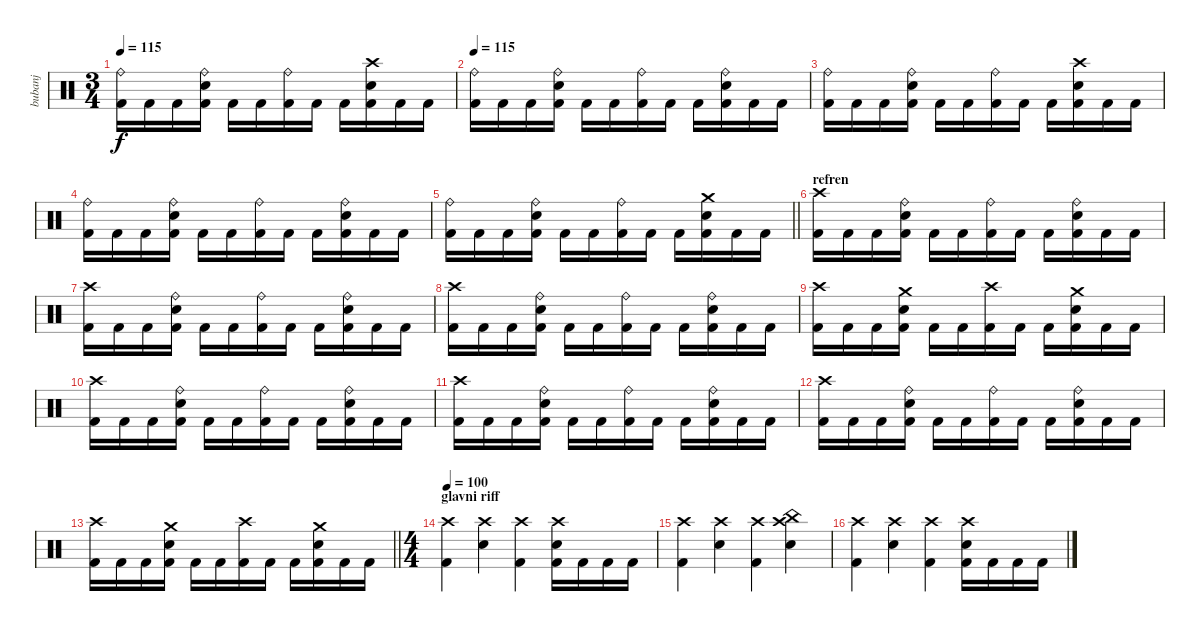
\track ("bubanj" "bubanj") {instrument percussion}
\staff {score}
\articulation defaults
\ts (3 4)
\tempo 115
\clef neutral
\ks c
("Ride (bell)" "Kick (hit) 2").16{dy f} "Kick (hit) 2".16 "Kick (hit) 2".16 ("Ride (bell)" "Electric Snare (hit)" "Kick (hit) 2").16 "Kick (hit) 2".16 "Kick (hit) 2".16 ("Ride (bell)" "Kick (hit) 2").16 "Kick (hit) 2".16 "Kick (hit) 2".16 ("Crash high (hit)" "Electric Snare (hit)" "Kick (hit) 2").16 "Kick (hit) 2".16 "Kick (hit) 2".16 |
\tempo 115
("Ride (bell)" "Kick (hit) 2").16 "Kick (hit) 2".16 "Kick (hit) 2".16 ("Ride (bell)" "Electric Snare (hit)" "Kick (hit) 2").16 "Kick (hit) 2".16 "Kick (hit) 2".16 ("Ride (bell)" "Kick (hit) 2").16 "Kick (hit) 2".16 "Kick (hit) 2".16 ("Ride (bell)" "Electric Snare (hit)" "Kick (hit) 2").16 "Kick (hit) 2".16 "Kick (hit) 2".16 |
("Ride (bell)" "Kick (hit) 2").16 "Kick (hit) 2".16 "Kick (hit) 2".16 ("Ride (bell)" "Electric Snare (hit)" "Kick (hit) 2").16 "Kick (hit) 2".16 "Kick (hit) 2".16 ("Ride (bell)" "Kick (hit) 2").16 "Kick (hit) 2".16 "Kick (hit) 2".16 ("Crash high (hit)" "Electric Snare (hit)" "Kick (hit) 2").16 "Kick (hit) 2".16 "Kick (hit) 2".16 |
("Ride (bell)" "Kick (hit) 2").16 "Kick (hit) 2".16 "Kick (hit) 2".16 ("Ride (bell)" "Electric Snare (hit)" "Kick (hit) 2").16 "Kick (hit) 2".16 "Kick (hit) 2".16 ("Ride (bell)" "Kick (hit) 2").16 "Kick (hit) 2".16 "Kick (hit) 2".16 ("Ride (bell)" "Electric Snare (hit)" "Kick (hit) 2").16 "Kick (hit) 2".16 "Kick (hit) 2".16 |
\barLineRight lightlight
("Ride (bell)" "Kick (hit) 2").16 "Kick (hit) 2".16 "Kick (hit) 2".16 ("Ride (bell)" "Electric Snare (hit)" "Kick (hit) 2").16 "Kick (hit) 2".16 "Kick (hit) 2".16 ("Ride (bell)" "Kick (hit) 2").16 "Kick (hit) 2".16 "Kick (hit) 2".16 ("Crash medium (hit)" "Electric Snare (hit)" "Kick (hit) 2").16 "Kick (hit) 2".16 "Kick (hit) 2".16 |
\section ("" "refren")
("Crash high (hit)" "Kick (hit) 2").16 "Kick (hit) 2".16 "Kick (hit) 2".16 ("Ride (bell)" "Electric Snare (hit)" "Kick (hit) 2").16 "Kick (hit) 2".16 "Kick (hit) 2".16 ("Ride (bell)" "Kick (hit) 2").16 "Kick (hit) 2".16 "Kick (hit) 2".16 ("Ride (bell)" "Electric Snare (hit)" "Kick (hit) 2").16 "Kick (hit) 2".16 "Kick (hit) 2".16 |
("Crash high (hit)" "Kick (hit) 2").16 "Kick (hit) 2".16 "Kick (hit) 2".16 ("Ride (bell)" "Electric Snare (hit)" "Kick (hit) 2").16 "Kick (hit) 2".16 "Kick (hit) 2".16 ("Ride (bell)" "Kick (hit) 2").16 "Kick (hit) 2".16 "Kick (hit) 2".16 ("Ride (bell)" "Electric Snare (hit)" "Kick (hit) 2").16 "Kick (hit) 2".16 "Kick (hit) 2".16 |
("Crash high (hit)" "Kick (hit) 2").16 "Kick (hit) 2".16 "Kick (hit) 2".16 ("Ride (bell)" "Electric Snare (hit)" "Kick (hit) 2").16 "Kick (hit) 2".16 "Kick (hit) 2".16 ("Ride (bell)" "Kick (hit) 2").16 "Kick (hit) 2".16 "Kick (hit) 2".16 ("Ride (bell)" "Electric Snare (hit)" "Kick (hit) 2").16 "Kick (hit) 2".16 "Kick (hit) 2".16 |
("Crash high (hit)" "Kick (hit) 2").16 "Kick (hit) 2".16 "Kick (hit) 2".16 ("Crash medium (hit)" "Electric Snare (hit)" "Kick (hit) 2").16 "Kick (hit) 2".16 "Kick (hit) 2".16 ("Crash high (hit)" "Kick (hit) 2").16 "Kick (hit) 2".16 "Kick (hit) 2".16 ("Crash medium (hit)" "Electric Snare (hit)" "Kick (hit) 2").16 "Kick (hit) 2".16 "Kick (hit) 2".16 |
("Crash high (hit)" "Kick (hit) 2").16 "Kick (hit) 2".16 "Kick (hit) 2".16 ("Ride (bell)" "Electric Snare (hit)" "Kick (hit) 2").16 "Kick (hit) 2".16 "Kick (hit) 2".16 ("Ride (bell)" "Kick (hit) 2").16 "Kick (hit) 2".16 "Kick (hit) 2".16 ("Ride (bell)" "Electric Snare (hit)" "Kick (hit) 2").16 "Kick (hit) 2".16 "Kick (hit) 2".16 |
("Crash high (hit)" "Kick (hit) 2").16 "Kick (hit) 2".16 "Kick (hit) 2".16 ("Ride (bell)" "Electric Snare (hit)" "Kick (hit) 2").16 "Kick (hit) 2".16 "Kick (hit) 2".16 ("Ride (bell)" "Kick (hit) 2").16 "Kick (hit) 2".16 "Kick (hit) 2".16 ("Ride (bell)" "Electric Snare (hit)" "Kick (hit) 2").16 "Kick (hit) 2".16 "Kick (hit) 2".16 |
("Crash high (hit)" "Kick (hit) 2").16 "Kick (hit) 2".16 "Kick (hit) 2".16 ("Ride (bell)" "Electric Snare (hit)" "Kick (hit) 2").16 "Kick (hit) 2".16 "Kick (hit) 2".16 ("Ride (bell)" "Kick (hit) 2").16 "Kick (hit) 2".16 "Kick (hit) 2".16 ("Ride (bell)" "Electric Snare (hit)" "Kick (hit) 2").16 "Kick (hit) 2".16 "Kick (hit) 2".16 |
\barLineRight lightlight
("Crash high (hit)" "Kick (hit) 2").16 "Kick (hit) 2".16 "Kick (hit) 2".16 ("Crash medium (hit)" "Electric Snare (hit)" "Kick (hit) 2").16 "Kick (hit) 2".16 "Kick (hit) 2".16 ("Crash high (hit)" "Kick (hit) 2").16 "Kick (hit) 2".16 "Kick (hit) 2".16 ("Crash medium (hit)" "Electric Snare (hit)" "Kick (hit) 2").16 "Kick (hit) 2".16 "Kick (hit) 2".16 |
\ts (4 4)
\section ("" "glavni riff")
\tempo 100
("Crash high (hit)" "Kick (hit) 2").4 ("Crash high (hit)" "Electric Snare (hit)").4 ("Crash high (hit)" "Kick (hit) 2").4 ("Crash high (hit)" "Electric Snare (hit)" "Kick (hit) 2").16 "Kick (hit) 2".16 "Kick (hit) 2".16 "Kick (hit) 2".16 |
("Crash high (hit)" "Kick (hit) 2").4 ("Crash high (hit)" "Electric Snare (hit)").4 ("Crash high (hit)" "Kick (hit) 2").4 ("China (hit)" "Crash high (hit)" "Electric Snare (hit)").4 |
("Crash high (hit)" "Kick (hit) 2").4 ("Crash high (hit)" "Electric Snare (hit)").4 ("Crash high (hit)" "Kick (hit) 2").4 ("Crash high (hit)" "Electric Snare (hit)" "Kick (hit) 2").16 "Kick (hit) 2".16 "Kick (hit) 2".16 "Kick (hit) 2".16
